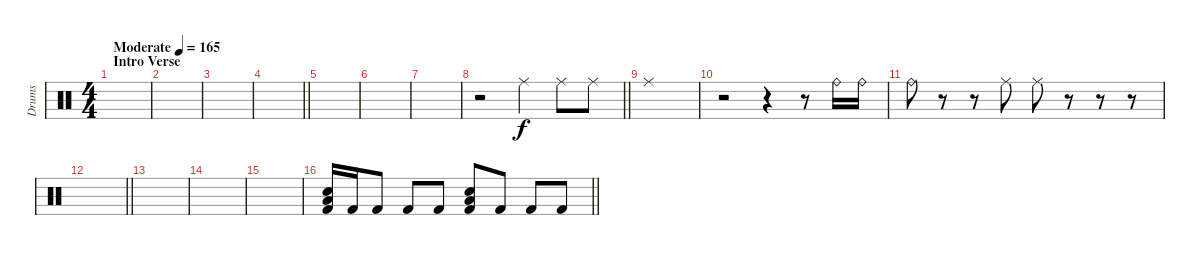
\track ("Drums" "Drums") {instrument percussion}
\staff {score}
\articulation defaults
\ts (4 4)
\section ("" "Intro Verse")
\tempo (165 "Moderate")
\clef neutral
\ks c
|
|
|
\barLineRight lightlight
|
|
|
|
\barLineRight lightlight
r.2 "Ride (middle)".4 "Ride (middle)".8 "Ride (middle)".8 |
"Ride (middle)".1 |
r.2 r.4 r.8 "Ride (bell)".16 "Ride (bell)".16 |
"Ride (bell)".8 r.8 r.8 "Ride (middle)".8 "Ride (middle)".8 r.8 r.8 r.8 |
\barLineRight lightlight
|
|
|
|
\barLineRight lightlight
("Low Tom (hit)" "Electric Snare (hit)" "Kick (hit) 2").16 "Kick (hit) 2".16 "Kick (hit) 2".8 "Kick (hit) 2".8 "Kick (hit) 2".8 ("Low Tom (hit)" "Electric Snare (hit)" "Kick (hit) 2").8 "Kick (hit) 2".8 "Kick (hit) 2".8 "Kick (hit) 2".8
